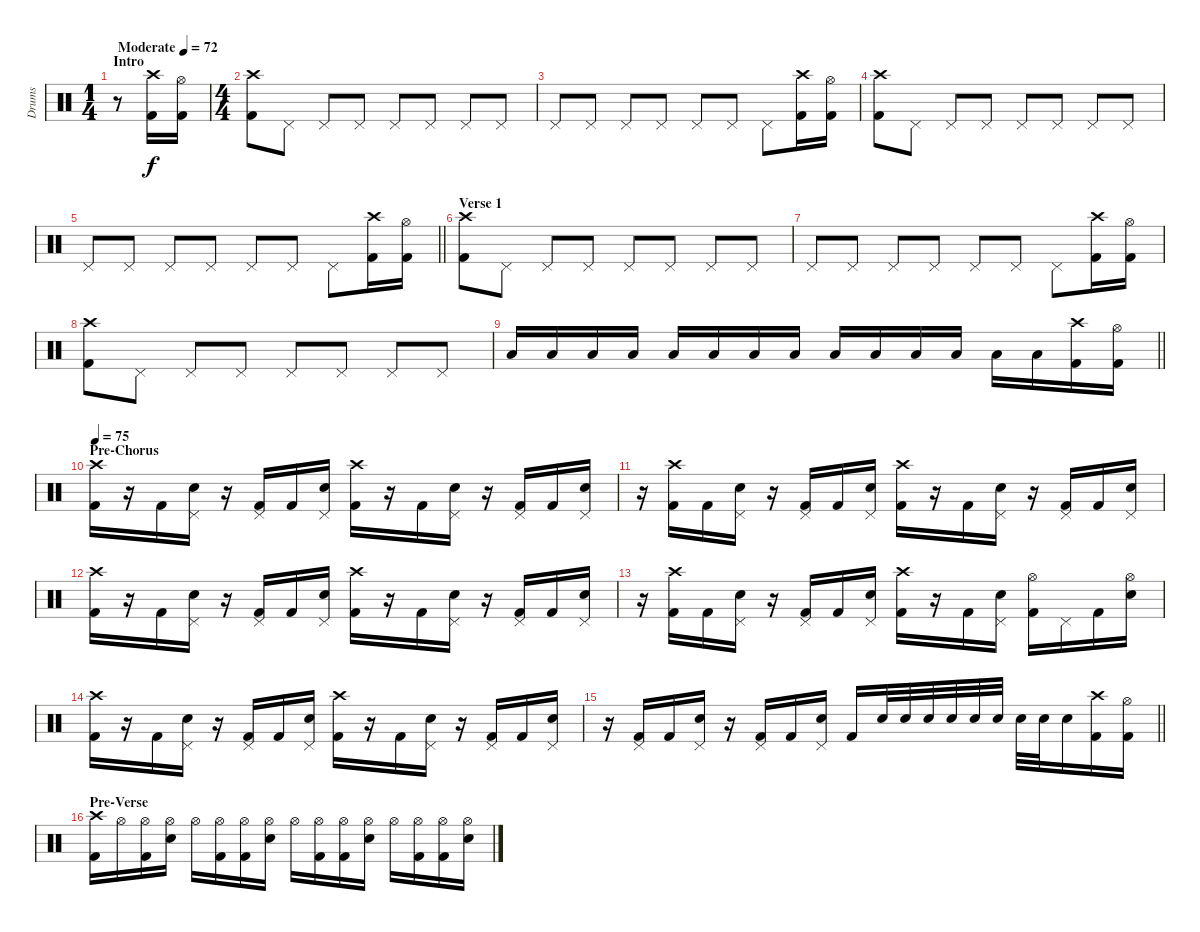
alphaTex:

\track ("Drums" "Drums") {instrument percussion}
\staff {score}
\articulation defaults
\ts (1 4)
\section ("" "Intro")
\tempo (72 "Moderate")
\clef neutral
\ks c
r.8{dy f} ("Crash high (hit)" "Kick (hit) 2").16 ("Hi-Hat (open)" "Kick (hit) 2").16 |
\ts (4 4)
("Crash high (hit)" "Kick (hit) 2").8 "Pedal Hi-Hat (hit)".8 "Pedal Hi-Hat (hit)".8 "Pedal Hi-Hat (hit)".8 "Pedal Hi-Hat (hit)".8 "Pedal Hi-Hat (hit)".8 "Pedal Hi-Hat (hit)".8 "Pedal Hi-Hat (hit)".8 |
"Pedal Hi-Hat (hit)".8 "Pedal Hi-Hat (hit)".8 "Pedal Hi-Hat (hit)".8 "Pedal Hi-Hat (hit)".8 "Pedal Hi-Hat (hit)".8 "Pedal Hi-Hat (hit)".8 "Pedal Hi-Hat (hit)".8 ("Crash high (hit)" "Kick (hit) 2").16 ("Hi-Hat (open)" "Kick (hit) 2").16 |
("Crash high (hit)" "Kick (hit) 2").8 "Pedal Hi-Hat (hit)".8 "Pedal Hi-Hat (hit)".8 "Pedal Hi-Hat (hit)".8 "Pedal Hi-Hat (hit)".8 "Pedal Hi-Hat (hit)".8 "Pedal Hi-Hat (hit)".8 "Pedal Hi-Hat (hit)".8 |
\barLineRight lightlight "Pedal Hi-Hat (hit)".8 "Pedal Hi-Hat (hit)".8 "Pedal Hi-Hat (hit)".8 "Pedal Hi-Hat (hit)".8 "Pedal Hi-Hat (hit)".8 "Pedal Hi-Hat (hit)".8 "Pedal Hi-Hat (hit)".8
("Crash high (hit)" "Kick (hit) 2").16 ("Hi-Hat (open)" "Kick (hit) 2").16 |
\section ("" "Verse 1")
("Crash high (hit)" "Kick (hit) 2").8 "Pedal Hi-Hat (hit)".8 "Pedal Hi-Hat (hit)".8 "Pedal Hi-Hat (hit)".8 "Pedal Hi-Hat (hit)".8 "Pedal Hi-Hat (hit)".8 "Pedal Hi-Hat (hit)".8 "Pedal Hi-Hat (hit)".8 |
"Pedal Hi-Hat (hit)".8 "Pedal Hi-Hat (hit)".8 "Pedal Hi-Hat (hit)".8 "Pedal Hi-Hat (hit)".8 "Pedal Hi-Hat (hit)".8 "Pedal Hi-Hat (hit)".8 "Pedal Hi-Hat (hit)".8 ("Crash high (hit)" "Kick (hit) 2").16 ("Hi-Hat (open)" "Kick (hit) 2").16 |
("Crash high (hit)" "Kick (hit) 2").8 "Pedal Hi-Hat (hit)".8 "Pedal Hi-Hat (hit)".8 "Pedal Hi-Hat (hit)".8 "Pedal Hi-Hat (hit)".8 "Pedal Hi-Hat (hit)".8 "Pedal Hi-Hat (hit)".8 "Pedal Hi-Hat (hit)".8 |
\barLineRight lightlight "Low Tom (hit)".16 "Low Tom (hit)".16 "Low Tom (hit)".16 "Low Tom (hit)".16 "Low Tom (hit)".16 "Low Tom (hit)".16 "Low Tom (hit)".16 "Low Tom (hit)".16 "Low Tom (hit)".16 "Low Tom (hit)".16 "Low Tom (hit)".16 "Low Tom (hit)".16 "Low Tom (hit)".16 "Low Tom (hit)".16
("Crash high (hit)" "Kick (hit) 2").16 ("Hi-Hat (open)" "Kick (hit) 2").16 |
\section ("" "Pre-Chorus")
\tempo 75
("Crash high (hit)" "Kick (hit) 2").16 r.16 "Kick (hit) 2".16 ("Pedal Hi-Hat (hit)" "Snare (hit) 2").16 r.16 ("Pedal Hi-Hat (hit)" "Kick (hit) 2").16 "Kick (hit) 2".16 ("Pedal Hi-Hat (hit)" "Snare (hit) 2").16 ("Crash high (hit)" "Kick (hit) 2").16 r.16 "Kick (hit) 2".16 ("Pedal Hi-Hat (hit)" "Snare (hit) 2").16 r.16 ("Pedal Hi-Hat (hit)" "Kick (hit) 2").16 "Kick (hit) 2".16 ("Pedal Hi-Hat (hit)" "Snare (hit) 2").16 |
r.16 ("Crash high (hit)" "Kick (hit) 2").16 "Kick (hit) 2".16 ("Pedal Hi-Hat (hit)" "Snare (hit) 2").16 r.16 ("Pedal Hi-Hat (hit)" "Kick (hit) 2").16 "Kick (hit) 2".16 ("Pedal Hi-Hat (hit)" "Snare (hit) 2").16 ("Crash high (hit)" "Kick (hit) 2").16 r.16 "Kick (hit) 2".16 ("Pedal Hi-Hat (hit)" "Snare (hit) 2").16 r.16 ("Pedal Hi-Hat (hit)" "Kick (hit) 2").16 "Kick (hit) 2".16 ("Pedal Hi-Hat (hit)" "Snare (hit) 2").16 |
("Crash high (hit)" "Kick (hit) 2").16 r.16 "Kick (hit) 2".16 ("Pedal Hi-Hat (hit)" "Snare (hit) 2").16 r.16 ("Pedal Hi-Hat (hit)" "Kick (hit) 2").16 "Kick (hit) 2".16 ("Pedal Hi-Hat (hit)" "Snare (hit) 2").16 ("Crash high (hit)" "Kick (hit) 2").16 r.16 "Kick (hit) 2".16 ("Pedal Hi-Hat (hit)" "Snare (hit) 2").16 r.16 ("Pedal Hi-Hat (hit)" "Kick (hit) 2").16 "Kick (hit) 2".16 ("Pedal Hi-Hat (hit)" "Snare (hit) 2").16 |
r.16 ("Crash high (hit)" "Kick (hit) 2").16 "Kick (hit) 2".16 ("Pedal Hi-Hat (hit)" "Snare (hit) 2").16 r.16 ("Pedal Hi-Hat (hit)" "Kick (hit) 2").16 "Kick (hit) 2".16 ("Pedal Hi-Hat (hit)" "Snare (hit) 2").16 ("Crash high (hit)" "Kick (hit) 2").16 r.16 "Kick (hit) 2".16 ("Pedal Hi-Hat (hit)" "Snare (hit) 2").16 ("Hi-Hat (open)" "Kick (hit) 2").16 "Pedal Hi-Hat (hit)".16 "Kick (hit) 2".16 ("Hi-Hat (open)" "Snare (hit) 2").16 |
("Crash high (hit)" "Kick (hit) 2").16 r.16 "Kick (hit) 2".16 ("Pedal Hi-Hat (hit)" "Snare (hit) 2").16 r.16 ("Pedal Hi-Hat (hit)" "Kick (hit) 2").16 "Kick (hit) 2".16 ("Pedal Hi-Hat (hit)" "Snare (hit) 2").16 ("Crash high (hit)" "Kick (hit) 2").16 r.16 "Kick (hit) 2".16 ("Pedal Hi-Hat (hit)" "Snare (hit) 2").16 r.16 ("Pedal Hi-Hat (hit)" "Kick (hit) 2").16 "Kick (hit) 2".16 ("Pedal Hi-Hat (hit)" "Snare (hit) 2").16 |
\barLineRight lightlight
r.16 ("Pedal Hi-Hat (hit)" "Kick (hit) 2").16 "Kick (hit) 2".16 ("Pedal Hi-Hat (hit)" "Snare (hit) 2").16 r.16 ("Pedal Hi-Hat (hit)" "Kick (hit) 2").16 "Kick (hit) 2".16 ("Pedal Hi-Hat (hit)" "Snare (hit) 2").16 "Kick (hit) 2".16 "Snare (hit) 2".32 "Snare (hit) 2".32 "Snare (hit) 2".32 "Snare (hit) 2".32 "Snare (hit) 2".32 "Snare (hit) 2".32 "Snare (hit) 2".32 "Snare (hit) 2".32 "Snare (hit) 2".16 ("Crash high (hit)" "Kick (hit) 2").16 ("Hi-Hat (open)" "Kick (hit) 2").16 |
\section ("" "Pre-Verse")
("Crash high (hit)" "Kick (hit) 2").16 "Hi-Hat (open)".16 ("Hi-Hat (open)" "Kick (hit) 2").16 ("Hi-Hat (open)" "Snare (hit) 2").16 "Hi-Hat (open)".16 ("Hi-Hat (open)" "Kick (hit) 2").16 ("Hi-Hat (open)" "Kick (hit) 2").16 ("Hi-Hat (open)" "Snare (hit) 2").16 "Hi-Hat (open)".16 ("Hi-Hat (open)" "Kick (hit) 2").16 ("Hi-Hat (open)" "Kick (hit) 2").16 ("Hi-Hat (open)" "Snare (hit) 2").16 "Hi-Hat (open)".16 ("Hi-Hat (open)" "Kick (hit) 2").16 ("Hi-Hat (open)" "Kick (hit) 2").16 ("Hi-Hat (open)" "Snare (hit) 2").16
